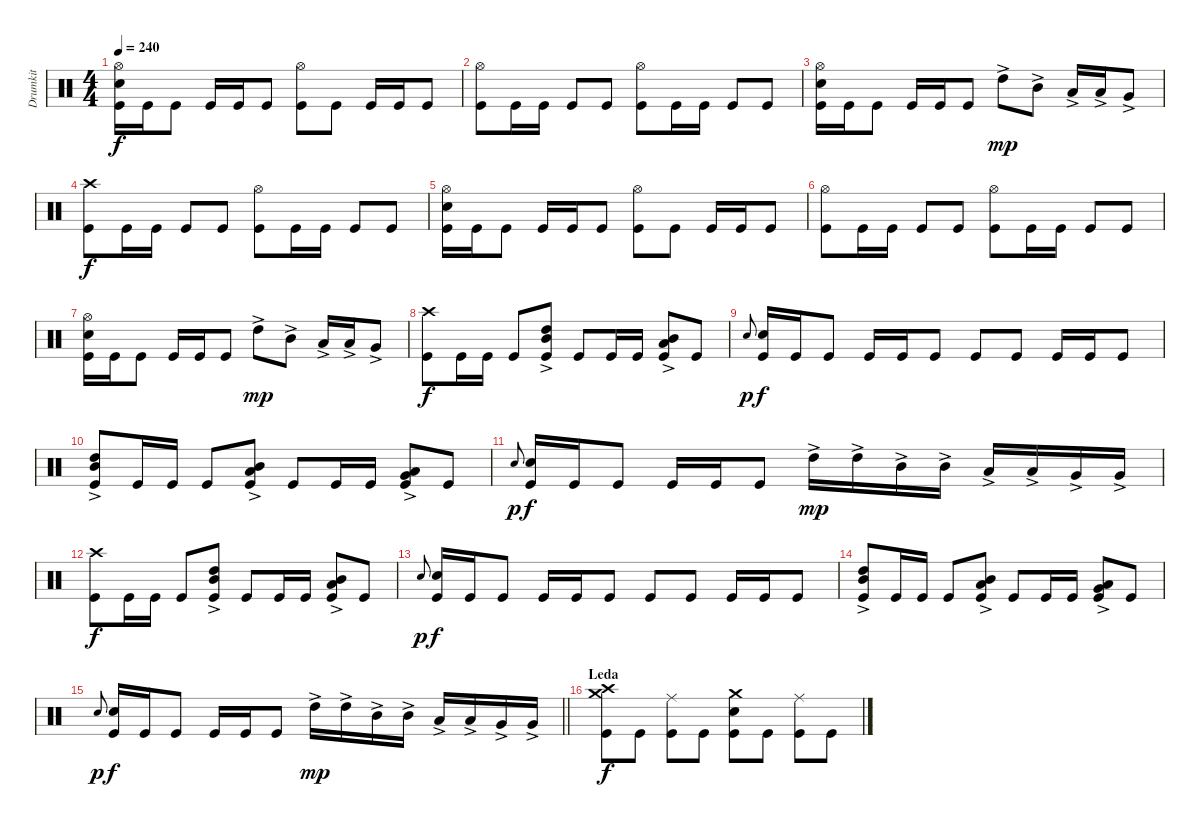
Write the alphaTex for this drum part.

\track ("Drumkit" "Drumkit") {instrument percussion}
\staff {score}
\articulation defaults
\ts (4 4)
\tempo 240
\clef neutral
\ks c
("Hi-Hat (open)" "Snare (hit) 2" "Kick (hit)").16{dy f} "Kick (hit)".16 "Kick (hit)".8 "Kick (hit)".16 "Kick (hit)".16 "Kick (hit)".8 ("Hi-Hat (open)" "Kick (hit)").8 "Kick (hit)".8 "Kick (hit)".16 "Kick (hit)".16 "Kick (hit)".8 |
("Hi-Hat (open)" "Kick (hit)").8 "Kick (hit)".16 "Kick (hit)".16 "Kick (hit)".8 "Kick (hit)".8 ("Hi-Hat (open)" "Kick (hit)").8 "Kick (hit)".16 "Kick (hit)".16 "Kick (hit)".8 "Kick (hit)".8 |
("Hi-Hat (open)" "Snare (hit) 2" "Kick (hit)").16 "Kick (hit)".16 "Kick (hit)".8 "Kick (hit)".16 "Kick (hit)".16 "Kick (hit)".8 "High Tom (hit)"{ac}.8{dy mp} "Mid Tom (hit)"{ac}.8 "Low Tom (hit)"{ac}.16 "Low Tom (hit)"{ac}.16 "Very Low Tom (hit)"{ac}.8 |
("Crash high (hit)" "Kick (hit)").8{dy f} "Kick (hit)".16 "Kick (hit)".16 "Kick (hit)".8 "Kick (hit)".8 ("Hi-Hat (open)" "Kick (hit)").8 "Kick (hit)".16 "Kick (hit)".16 "Kick (hit)".8 "Kick (hit)".8 |
("Hi-Hat (open)" "Snare (hit) 2" "Kick (hit)").16 "Kick (hit)".16 "Kick (hit)".8 "Kick (hit)".16 "Kick (hit)".16 "Kick (hit)".8 ("Hi-Hat (open)" "Kick (hit)").8 "Kick (hit)".8 "Kick (hit)".16 "Kick (hit)".16 "Kick (hit)".8 |
("Hi-Hat (open)" "Kick (hit)").8 "Kick (hit)".16 "Kick (hit)".16 "Kick (hit)".8 "Kick (hit)".8 ("Hi-Hat (open)" "Kick (hit)").8 "Kick (hit)".16 "Kick (hit)".16 "Kick (hit)".8 "Kick (hit)".8 |
("Hi-Hat (open)" "Snare (hit) 2" "Kick (hit)").16 "Kick (hit)".16 "Kick (hit)".8 "Kick (hit)".16 "Kick (hit)".16 "Kick (hit)".8 "High Tom (hit)"{ac}.8{dy mp} "Mid Tom (hit)"{ac}.8 "Low Tom (hit)"{ac}.16 "Low Tom (hit)"{ac}.16 "Very Low Tom (hit)"{ac}.8 |
("Crash high (hit)" "Kick (hit)").8{dy f} "Kick (hit)".16 "Kick (hit)".16 "Kick (hit)".8 ("High Tom (hit)"{ac} "Mid Tom (hit)"{ac} "Kick (hit)").8 "Kick (hit)".8 "Kick (hit)".16 "Kick (hit)".16 ("Mid Tom (hit)"{ac} "Low Tom (hit)"{ac} "Kick (hit)").8 "Kick (hit)".8 |
"Snare (hit)".8{gr onbeat dy p} ("Snare (hit) 2" "Kick (hit)").16{dy f} "Kick (hit)".16 "Kick (hit)".8 "Kick (hit)".16 "Kick (hit)".16 "Kick (hit)".8 "Kick (hit)".8 "Kick (hit)".8 "Kick (hit)".16 "Kick (hit)".16 "Kick (hit)".8 |
("High Tom (hit)"{ac} "Mid Tom (hit)"{ac} "Kick (hit)").8 "Kick (hit)".16 "Kick (hit)".16 "Kick (hit)".8 ("Mid Tom (hit)"{ac} "Low Tom (hit)"{ac} "Kick (hit)").8 "Kick (hit)".8 "Kick (hit)".16 "Kick (hit)".16 ("Low Tom (hit)"{ac} "Very Low Tom (hit)"{ac} "Kick (hit)").8 "Kick (hit)".8 |
"Snare (hit)".8{gr onbeat dy p} ("Snare (hit) 2" "Kick (hit)").16{dy f} "Kick (hit)".16 "Kick (hit)".8 "Kick (hit)".16 "Kick (hit)".16 "Kick (hit)".8 "High Tom (hit)"{ac}.16{dy mp} "High Tom (hit)"{ac}.16 "Mid Tom (hit)"{ac}.16 "Mid Tom (hit)"{ac}.16 "Low Tom (hit)"{ac}.16 "Low Tom (hit)"{ac}.16 "Very Low Tom (hit)"{ac}.16 "Very Low Tom (hit)"{ac}.16 |
("Crash high (hit)" "Kick (hit)").8{dy f} "Kick (hit)".16 "Kick (hit)".16 "Kick (hit)".8 ("High Tom (hit)"{ac} "Mid Tom (hit)"{ac} "Kick (hit)").8 "Kick (hit)".8 "Kick (hit)".16 "Kick (hit)".16 ("Mid Tom (hit)"{ac} "Low Tom (hit)"{ac} "Kick (hit)").8 "Kick (hit)".8 |
"Snare (hit)".8{gr onbeat dy p} ("Snare (hit) 2" "Kick (hit)").16{dy f} "Kick (hit)".16 "Kick (hit)".8 "Kick (hit)".16 "Kick (hit)".16 "Kick (hit)".8 "Kick (hit)".8 "Kick (hit)".8 "Kick (hit)".16 "Kick (hit)".16 "Kick (hit)".8 |
("High Tom (hit)"{ac} "Mid Tom (hit)"{ac} "Kick (hit)").8 "Kick (hit)".16 "Kick (hit)".16 "Kick (hit)".8 ("Mid Tom (hit)"{ac} "Low Tom (hit)"{ac} "Kick (hit)").8 "Kick (hit)".8 "Kick (hit)".16 "Kick (hit)".16 ("Low Tom (hit)"{ac} "Very Low Tom (hit)"{ac} "Kick (hit)").8 "Kick (hit)".8 |
\barLineRight lightlight "Snare (hit)".8{gr onbeat dy p}
("Snare (hit) 2" "Kick (hit)").16{dy f} "Kick (hit)".16 "Kick (hit)".8 "Kick (hit)".16 "Kick (hit)".16 "Kick (hit)".8 "High Tom (hit)"{ac}.16{dy mp} "High Tom (hit)"{ac}.16 "Mid Tom (hit)"{ac}.16 "Mid Tom (hit)"{ac}.16 "Low Tom (hit)"{ac}.16 "Low Tom (hit)"{ac}.16 "Very Low Tom (hit)"{ac}.16 "Very Low Tom (hit)"{ac}.16 |
\section ("" "Leda")
("Crash high (hit)" "Crash medium (hit)" "Kick (hit)").8{dy f} "Kick (hit)".8 ("Ride (middle)" "Kick (hit)").8 "Kick (hit)".8 ("Crash medium (hit)" "Snare (hit) 2" "Kick (hit)").8 "Kick (hit)".8 ("Ride (middle)" "Kick (hit)").8 "Kick (hit)".8
